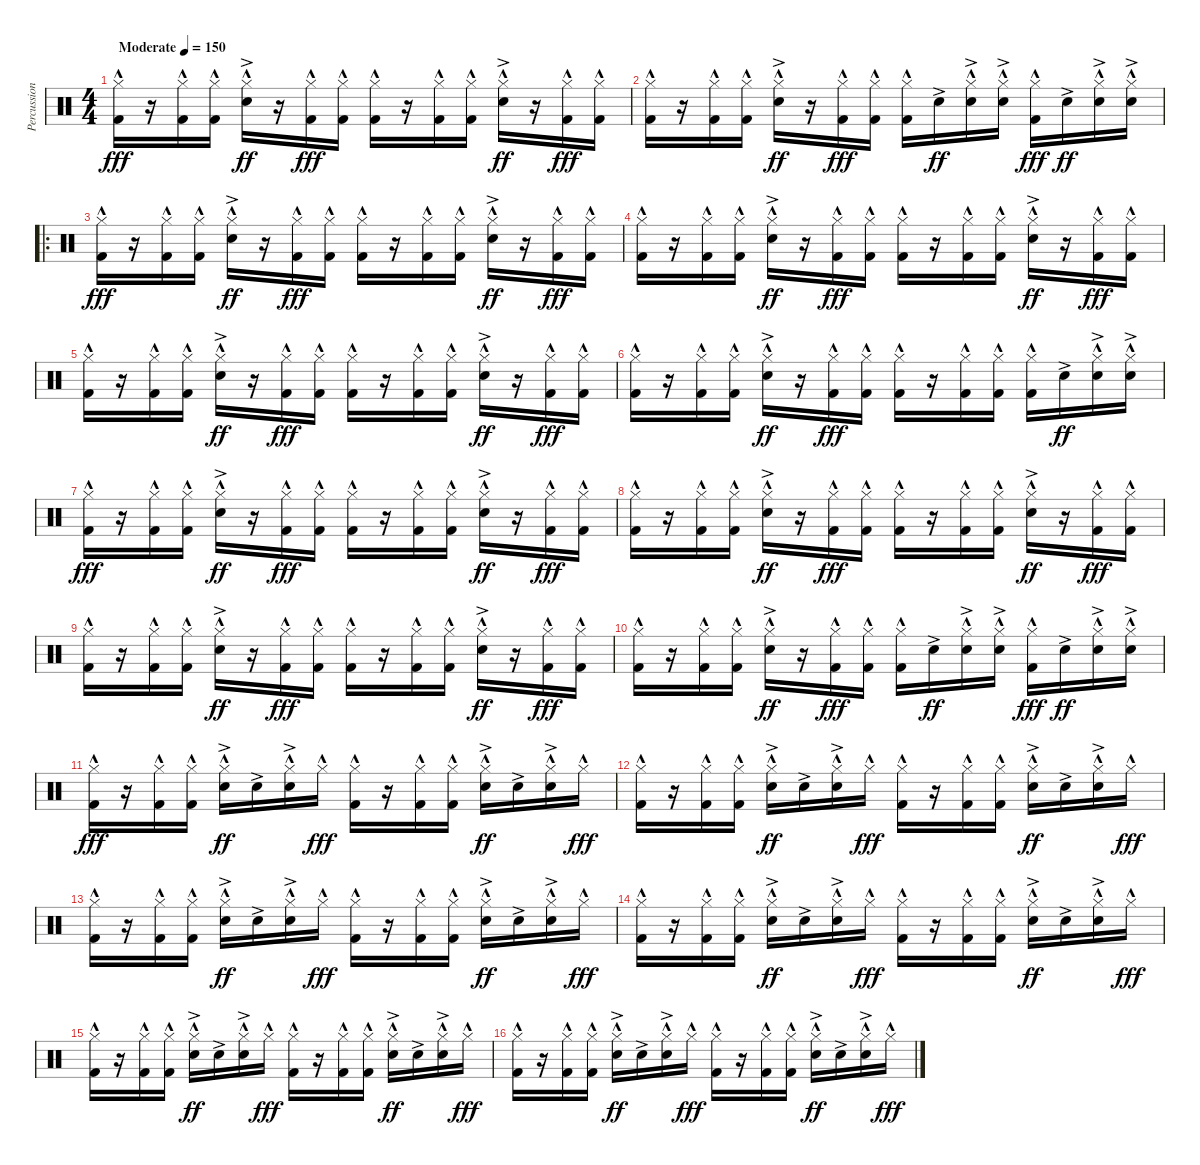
\track ("Percussion" "Percussion") {instrument percussion bank 255}
\staff {score}
\articulation defaults
\ts (4 4)
\tempo (150 "Moderate")
\clef neutral
\ks c
("Hi-Hat (closed)"{hac} "Kick (hit) 2"{hac}).16{dy fff} r.16 ("Hi-Hat (closed)"{hac} "Kick (hit) 2"{hac}).16 ("Hi-Hat (closed)"{hac} "Kick (hit) 2"{hac}).16 ("Hi-Hat (closed)"{hac} "Snare (hit) 2"{ac}).16{dy ff} r.16 ("Hi-Hat (closed)"{hac} "Kick (hit) 2"{hac}).16{dy fff} ("Hi-Hat (closed)"{hac} "Kick (hit) 2"{hac}).16 ("Hi-Hat (closed)"{hac} "Kick (hit) 2"{hac}).16 r.16 ("Hi-Hat (closed)"{hac} "Kick (hit) 2"{hac}).16 ("Hi-Hat (closed)"{hac} "Kick (hit) 2"{hac}).16 ("Hi-Hat (closed)"{hac} "Snare (hit) 2"{ac}).16{dy ff} r.16 ("Hi-Hat (closed)"{hac} "Kick (hit) 2"{hac}).16{dy fff} ("Hi-Hat (closed)"{hac} "Kick (hit) 2"{hac}).16 |
("Hi-Hat (closed)"{hac} "Kick (hit) 2"{hac}).16 r.16 ("Hi-Hat (closed)"{hac} "Kick (hit) 2"{hac}).16 ("Hi-Hat (closed)"{hac} "Kick (hit) 2"{hac}).16 ("Hi-Hat (closed)"{hac} "Snare (hit) 2"{ac}).16{dy ff} r.16 ("Hi-Hat (closed)"{hac} "Kick (hit) 2"{hac}).16{dy fff} ("Hi-Hat (closed)"{hac} "Kick (hit) 2"{hac}).16 ("Hi-Hat (closed)"{hac} "Kick (hit) 2"{hac}).16 "Snare (hit) 2"{ac}.16{dy ff} ("Hi-Hat (closed)"{hac} "Snare (hit) 2"{ac}).16 ("Hi-Hat (closed)"{hac} "Snare (hit) 2"{ac}).16 ("Hi-Hat (closed)"{hac} "Kick (hit) 2"{hac}).16{dy fff} "Snare (hit) 2"{ac}.16{dy ff} ("Hi-Hat (closed)"{hac} "Snare (hit) 2"{ac}).16 ("Hi-Hat (closed)"{hac} "Snare (hit) 2"{ac}).16 |
\ro
("Hi-Hat (closed)"{hac} "Kick (hit) 2"{hac}).16{dy fff} r.16 ("Hi-Hat (closed)"{hac} "Kick (hit) 2"{hac}).16 ("Hi-Hat (closed)"{hac} "Kick (hit) 2"{hac}).16 ("Hi-Hat (closed)"{hac} "Snare (hit) 2"{ac}).16{dy ff} r.16 ("Hi-Hat (closed)"{hac} "Kick (hit) 2"{hac}).16{dy fff} ("Hi-Hat (closed)"{hac} "Kick (hit) 2"{hac}).16 ("Hi-Hat (closed)"{hac} "Kick (hit) 2"{hac}).16 r.16 ("Hi-Hat (closed)"{hac} "Kick (hit) 2"{hac}).16 ("Hi-Hat (closed)"{hac} "Kick (hit) 2"{hac}).16 ("Hi-Hat (closed)"{hac} "Snare (hit) 2"{ac}).16{dy ff} r.16 ("Hi-Hat (closed)"{hac} "Kick (hit) 2"{hac}).16{dy fff} ("Hi-Hat (closed)"{hac} "Kick (hit) 2"{hac}).16 |
("Hi-Hat (closed)"{hac} "Kick (hit) 2"{hac}).16 r.16 ("Hi-Hat (closed)"{hac} "Kick (hit) 2"{hac}).16 ("Hi-Hat (closed)"{hac} "Kick (hit) 2"{hac}).16 ("Hi-Hat (closed)"{hac} "Snare (hit) 2"{ac}).16{dy ff} r.16 ("Hi-Hat (closed)"{hac} "Kick (hit) 2"{hac}).16{dy fff} ("Hi-Hat (closed)"{hac} "Kick (hit) 2"{hac}).16 ("Hi-Hat (closed)"{hac} "Kick (hit) 2"{hac}).16 r.16 ("Hi-Hat (closed)"{hac} "Kick (hit) 2"{hac}).16 ("Hi-Hat (closed)"{hac} "Kick (hit) 2"{hac}).16 ("Hi-Hat (closed)"{hac} "Snare (hit) 2"{ac}).16{dy ff} r.16 ("Hi-Hat (closed)"{hac} "Kick (hit) 2"{hac}).16{dy fff} ("Hi-Hat (closed)"{hac} "Kick (hit) 2"{hac}).16 |
("Hi-Hat (closed)"{hac} "Kick (hit) 2"{hac}).16 r.16 ("Hi-Hat (closed)"{hac} "Kick (hit) 2"{hac}).16 ("Hi-Hat (closed)"{hac} "Kick (hit) 2"{hac}).16 ("Hi-Hat (closed)"{hac} "Snare (hit) 2"{ac}).16{dy ff} r.16 ("Hi-Hat (closed)"{hac} "Kick (hit) 2"{hac}).16{dy fff} ("Hi-Hat (closed)"{hac} "Kick (hit) 2"{hac}).16 ("Hi-Hat (closed)"{hac} "Kick (hit) 2"{hac}).16 r.16 ("Hi-Hat (closed)"{hac} "Kick (hit) 2"{hac}).16 ("Hi-Hat (closed)"{hac} "Kick (hit) 2"{hac}).16 ("Hi-Hat (closed)"{hac} "Snare (hit) 2"{ac}).16{dy ff} r.16 ("Hi-Hat (closed)"{hac} "Kick (hit) 2"{hac}).16{dy fff} ("Hi-Hat (closed)"{hac} "Kick (hit) 2"{hac}).16 |
("Hi-Hat (closed)"{hac} "Kick (hit) 2"{hac}).16 r.16 ("Hi-Hat (closed)"{hac} "Kick (hit) 2"{hac}).16 ("Hi-Hat (closed)"{hac} "Kick (hit) 2"{hac}).16 ("Hi-Hat (closed)"{hac} "Snare (hit) 2"{ac}).16{dy ff} r.16 ("Hi-Hat (closed)"{hac} "Kick (hit) 2"{hac}).16{dy fff} ("Hi-Hat (closed)"{hac} "Kick (hit) 2"{hac}).16 ("Hi-Hat (closed)"{hac} "Kick (hit) 2"{hac}).16 r.16 ("Hi-Hat (closed)"{hac} "Kick (hit) 2"{hac}).16 ("Hi-Hat (closed)"{hac} "Kick (hit) 2"{hac}).16 ("Hi-Hat (closed)"{hac} "Kick (hit) 2"{hac}).16 "Snare (hit) 2"{ac}.16{dy ff} ("Hi-Hat (closed)"{hac} "Snare (hit) 2"{ac}).16 ("Hi-Hat (closed)"{hac} "Snare (hit) 2"{ac}).16 |
("Hi-Hat (closed)"{hac} "Kick (hit) 2"{hac}).16{dy fff} r.16 ("Hi-Hat (closed)"{hac} "Kick (hit) 2"{hac}).16 ("Hi-Hat (closed)"{hac} "Kick (hit) 2"{hac}).16 ("Hi-Hat (closed)"{hac} "Snare (hit) 2"{ac}).16{dy ff} r.16 ("Hi-Hat (closed)"{hac} "Kick (hit) 2"{hac}).16{dy fff} ("Hi-Hat (closed)"{hac} "Kick (hit) 2"{hac}).16 ("Hi-Hat (closed)"{hac} "Kick (hit) 2"{hac}).16 r.16 ("Hi-Hat (closed)"{hac} "Kick (hit) 2"{hac}).16 ("Hi-Hat (closed)"{hac} "Kick (hit) 2"{hac}).16 ("Hi-Hat (closed)"{hac} "Snare (hit) 2"{ac}).16{dy ff} r.16 ("Hi-Hat (closed)"{hac} "Kick (hit) 2"{hac}).16{dy fff} ("Hi-Hat (closed)"{hac} "Kick (hit) 2"{hac}).16 |
("Hi-Hat (closed)"{hac} "Kick (hit) 2"{hac}).16 r.16 ("Hi-Hat (closed)"{hac} "Kick (hit) 2"{hac}).16 ("Hi-Hat (closed)"{hac} "Kick (hit) 2"{hac}).16 ("Hi-Hat (closed)"{hac} "Snare (hit) 2"{ac}).16{dy ff} r.16 ("Hi-Hat (closed)"{hac} "Kick (hit) 2"{hac}).16{dy fff} ("Hi-Hat (closed)"{hac} "Kick (hit) 2"{hac}).16 ("Hi-Hat (closed)"{hac} "Kick (hit) 2"{hac}).16 r.16 ("Hi-Hat (closed)"{hac} "Kick (hit) 2"{hac}).16 ("Hi-Hat (closed)"{hac} "Kick (hit) 2"{hac}).16 ("Hi-Hat (closed)"{hac} "Snare (hit) 2"{ac}).16{dy ff} r.16 ("Hi-Hat (closed)"{hac} "Kick (hit) 2"{hac}).16{dy fff} ("Hi-Hat (closed)"{hac} "Kick (hit) 2"{hac}).16 |
("Hi-Hat (closed)"{hac} "Kick (hit) 2"{hac}).16 r.16 ("Hi-Hat (closed)"{hac} "Kick (hit) 2"{hac}).16 ("Hi-Hat (closed)"{hac} "Kick (hit) 2"{hac}).16 ("Hi-Hat (closed)"{hac} "Snare (hit) 2"{ac}).16{dy ff} r.16 ("Hi-Hat (closed)"{hac} "Kick (hit) 2"{hac}).16{dy fff} ("Hi-Hat (closed)"{hac} "Kick (hit) 2"{hac}).16 ("Hi-Hat (closed)"{hac} "Kick (hit) 2"{hac}).16 r.16 ("Hi-Hat (closed)"{hac} "Kick (hit) 2"{hac}).16 ("Hi-Hat (closed)"{hac} "Kick (hit) 2"{hac}).16 ("Hi-Hat (closed)"{hac} "Snare (hit) 2"{ac}).16{dy ff} r.16 ("Hi-Hat (closed)"{hac} "Kick (hit) 2"{hac}).16{dy fff} ("Hi-Hat (closed)"{hac} "Kick (hit) 2"{hac}).16 |
("Hi-Hat (closed)"{hac} "Kick (hit) 2"{hac}).16 r.16 ("Hi-Hat (closed)"{hac} "Kick (hit) 2"{hac}).16 ("Hi-Hat (closed)"{hac} "Kick (hit) 2"{hac}).16 ("Hi-Hat (closed)"{hac} "Snare (hit) 2"{ac}).16{dy ff} r.16 ("Hi-Hat (closed)"{hac} "Kick (hit) 2"{hac}).16{dy fff} ("Hi-Hat (closed)"{hac} "Kick (hit) 2"{hac}).16 ("Hi-Hat (closed)"{hac} "Kick (hit) 2"{hac}).16 "Snare (hit) 2"{ac}.16{dy ff} ("Hi-Hat (closed)"{hac} "Snare (hit) 2"{ac}).16 ("Hi-Hat (closed)"{hac} "Snare (hit) 2"{ac}).16 ("Hi-Hat (closed)"{hac} "Kick (hit) 2"{hac}).16{dy fff} "Snare (hit) 2"{ac}.16{dy ff} ("Hi-Hat (closed)"{hac} "Snare (hit) 2"{ac}).16 ("Hi-Hat (closed)"{hac} "Snare (hit) 2"{ac}).16 |
("Hi-Hat (closed)"{hac} "Kick (hit) 2"{hac}).16{dy fff} r.16 ("Hi-Hat (closed)"{hac} "Kick (hit) 2"{hac}).16 ("Hi-Hat (closed)"{hac} "Kick (hit) 2"{hac}).16 ("Hi-Hat (closed)"{hac} "Snare (hit) 2"{ac}).16{dy ff} "Snare (hit) 2"{ac}.16 ("Hi-Hat (closed)"{hac} "Snare (hit) 2"{ac}).16 "Hi-Hat (closed)"{hac}.16{dy fff} ("Hi-Hat (closed)"{hac} "Kick (hit) 2"{hac}).16 r.16 ("Hi-Hat (closed)"{hac} "Kick (hit) 2"{hac}).16 ("Hi-Hat (closed)"{hac} "Kick (hit) 2"{hac}).16 ("Hi-Hat (closed)"{hac} "Snare (hit) 2"{ac}).16{dy ff} "Snare (hit) 2"{ac}.16 ("Hi-Hat (closed)"{hac} "Snare (hit) 2"{ac}).16 "Hi-Hat (closed)"{hac}.16{dy fff} |
("Hi-Hat (closed)"{hac} "Kick (hit) 2"{hac}).16 r.16 ("Hi-Hat (closed)"{hac} "Kick (hit) 2"{hac}).16 ("Hi-Hat (closed)"{hac} "Kick (hit) 2"{hac}).16 ("Hi-Hat (closed)"{hac} "Snare (hit) 2"{ac}).16{dy ff} "Snare (hit) 2"{ac}.16 ("Hi-Hat (closed)"{hac} "Snare (hit) 2"{ac}).16 "Hi-Hat (closed)"{hac}.16{dy fff} ("Hi-Hat (closed)"{hac} "Kick (hit) 2"{hac}).16 r.16 ("Hi-Hat (closed)"{hac} "Kick (hit) 2"{hac}).16 ("Hi-Hat (closed)"{hac} "Kick (hit) 2"{hac}).16 ("Hi-Hat (closed)"{hac} "Snare (hit) 2"{ac}).16{dy ff} "Snare (hit) 2"{ac}.16 ("Hi-Hat (closed)"{hac} "Snare (hit) 2"{ac}).16 "Hi-Hat (closed)"{hac}.16{dy fff} |
("Hi-Hat (closed)"{hac} "Kick (hit) 2"{hac}).16 r.16 ("Hi-Hat (closed)"{hac} "Kick (hit) 2"{hac}).16 ("Hi-Hat (closed)"{hac} "Kick (hit) 2"{hac}).16 ("Hi-Hat (closed)"{hac} "Snare (hit) 2"{ac}).16{dy ff} "Snare (hit) 2"{ac}.16 ("Hi-Hat (closed)"{hac} "Snare (hit) 2"{ac}).16 "Hi-Hat (closed)"{hac}.16{dy fff} ("Hi-Hat (closed)"{hac} "Kick (hit) 2"{hac}).16 r.16 ("Hi-Hat (closed)"{hac} "Kick (hit) 2"{hac}).16 ("Hi-Hat (closed)"{hac} "Kick (hit) 2"{hac}).16 ("Hi-Hat (closed)"{hac} "Snare (hit) 2"{ac}).16{dy ff} "Snare (hit) 2"{ac}.16 ("Hi-Hat (closed)"{hac} "Snare (hit) 2"{ac}).16 "Hi-Hat (closed)"{hac}.16{dy fff} |
("Hi-Hat (closed)"{hac} "Kick (hit) 2"{hac}).16 r.16 ("Hi-Hat (closed)"{hac} "Kick (hit) 2"{hac}).16 ("Hi-Hat (closed)"{hac} "Kick (hit) 2"{hac}).16 ("Hi-Hat (closed)"{hac} "Snare (hit) 2"{ac}).16{dy ff} "Snare (hit) 2"{ac}.16 ("Hi-Hat (closed)"{hac} "Snare (hit) 2"{ac}).16 "Hi-Hat (closed)"{hac}.16{dy fff} ("Hi-Hat (closed)"{hac} "Kick (hit) 2"{hac}).16 r.16 ("Hi-Hat (closed)"{hac} "Kick (hit) 2"{hac}).16 ("Hi-Hat (closed)"{hac} "Kick (hit) 2"{hac}).16 ("Hi-Hat (closed)"{hac} "Snare (hit) 2"{ac}).16{dy ff} "Snare (hit) 2"{ac}.16 ("Hi-Hat (closed)"{hac} "Snare (hit) 2"{ac}).16 "Hi-Hat (closed)"{hac}.16{dy fff} |
("Hi-Hat (closed)"{hac} "Kick (hit) 2"{hac}).16 r.16 ("Hi-Hat (closed)"{hac} "Kick (hit) 2"{hac}).16 ("Hi-Hat (closed)"{hac} "Kick (hit) 2"{hac}).16 ("Hi-Hat (closed)"{hac} "Snare (hit) 2"{ac}).16{dy ff} "Snare (hit) 2"{ac}.16 ("Hi-Hat (closed)"{hac} "Snare (hit) 2"{ac}).16 "Hi-Hat (closed)"{hac}.16{dy fff} ("Hi-Hat (closed)"{hac} "Kick (hit) 2"{hac}).16 r.16 ("Hi-Hat (closed)"{hac} "Kick (hit) 2"{hac}).16 ("Hi-Hat (closed)"{hac} "Kick (hit) 2"{hac}).16 ("Hi-Hat (closed)"{hac} "Snare (hit) 2"{ac}).16{dy ff} "Snare (hit) 2"{ac}.16 ("Hi-Hat (closed)"{hac} "Snare (hit) 2"{ac}).16 "Hi-Hat (closed)"{hac}.16{dy fff} |
("Hi-Hat (closed)"{hac} "Kick (hit) 2"{hac}).16 r.16 ("Hi-Hat (closed)"{hac} "Kick (hit) 2"{hac}).16 ("Hi-Hat (closed)"{hac} "Kick (hit) 2"{hac}).16 ("Hi-Hat (closed)"{hac} "Snare (hit) 2"{ac}).16{dy ff} "Snare (hit) 2"{ac}.16 ("Hi-Hat (closed)"{hac} "Snare (hit) 2"{ac}).16 "Hi-Hat (closed)"{hac}.16{dy fff} ("Hi-Hat (closed)"{hac} "Kick (hit) 2"{hac}).16 r.16 ("Hi-Hat (closed)"{hac} "Kick (hit) 2"{hac}).16 ("Hi-Hat (closed)"{hac} "Kick (hit) 2"{hac}).16 ("Hi-Hat (closed)"{hac} "Snare (hit) 2"{ac}).16{dy ff} "Snare (hit) 2"{ac}.16 ("Hi-Hat (closed)"{hac} "Snare (hit) 2"{ac}).16 "Hi-Hat (closed)"{hac}.16{dy fff}
